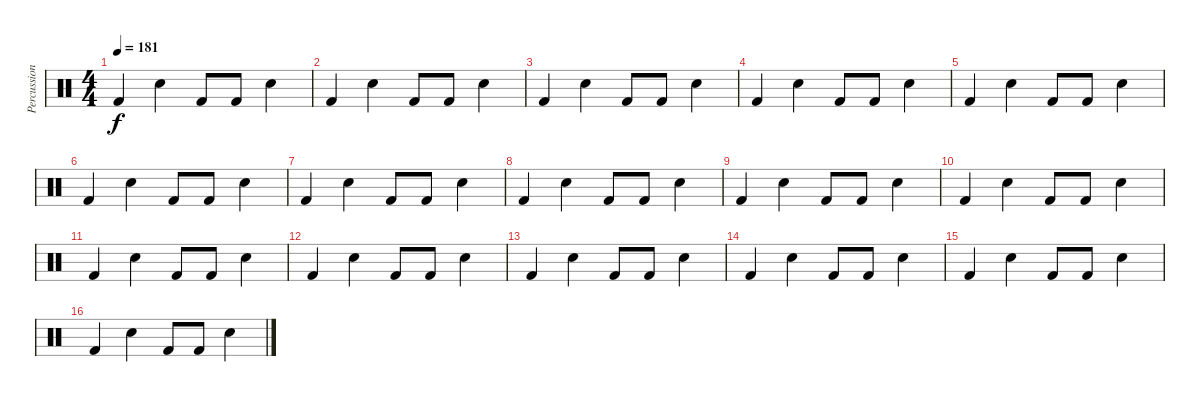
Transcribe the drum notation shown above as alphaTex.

\track ("Percussions" "Percussion") {instrument percussion}
\staff {score}
\articulation defaults
\ts (4 4)
\tempo 181
\clef neutral
\ks c "Kick (hit) 2".4{dy f} "Snare (hit) 2".4 "Kick (hit) 2".8 "Kick (hit) 2".8 "Snare (hit) 2".4
|
"Kick (hit) 2".4 "Snare (hit) 2".4 "Kick (hit) 2".8 "Kick (hit) 2".8 "Snare (hit) 2".4 |
"Kick (hit) 2".4 "Snare (hit) 2".4 "Kick (hit) 2".8 "Kick (hit) 2".8 "Snare (hit) 2".4 |
"Kick (hit) 2".4 "Snare (hit) 2".4 "Kick (hit) 2".8 "Kick (hit) 2".8 "Snare (hit) 2".4 |
"Kick (hit) 2".4 "Snare (hit) 2".4 "Kick (hit) 2".8 "Kick (hit) 2".8 "Snare (hit) 2".4 |
"Kick (hit) 2".4 "Snare (hit) 2".4 "Kick (hit) 2".8 "Kick (hit) 2".8 "Snare (hit) 2".4 |
"Kick (hit) 2".4 "Snare (hit) 2".4 "Kick (hit) 2".8 "Kick (hit) 2".8 "Snare (hit) 2".4 |
"Kick (hit) 2".4 "Snare (hit) 2".4 "Kick (hit) 2".8 "Kick (hit) 2".8 "Snare (hit) 2".4 |
"Kick (hit) 2".4 "Snare (hit) 2".4 "Kick (hit) 2".8 "Kick (hit) 2".8 "Snare (hit) 2".4 |
"Kick (hit) 2".4 "Snare (hit) 2".4 "Kick (hit) 2".8 "Kick (hit) 2".8 "Snare (hit) 2".4 |
"Kick (hit) 2".4 "Snare (hit) 2".4 "Kick (hit) 2".8 "Kick (hit) 2".8 "Snare (hit) 2".4 |
"Kick (hit) 2".4 "Snare (hit) 2".4 "Kick (hit) 2".8 "Kick (hit) 2".8 "Snare (hit) 2".4 |
"Kick (hit) 2".4 "Snare (hit) 2".4 "Kick (hit) 2".8 "Kick (hit) 2".8 "Snare (hit) 2".4 |
"Kick (hit) 2".4 "Snare (hit) 2".4 "Kick (hit) 2".8 "Kick (hit) 2".8 "Snare (hit) 2".4 |
"Kick (hit) 2".4 "Snare (hit) 2".4 "Kick (hit) 2".8 "Kick (hit) 2".8 "Snare (hit) 2".4 |
"Kick (hit) 2".4 "Snare (hit) 2".4 "Kick (hit) 2".8 "Kick (hit) 2".8 "Snare (hit) 2".4
